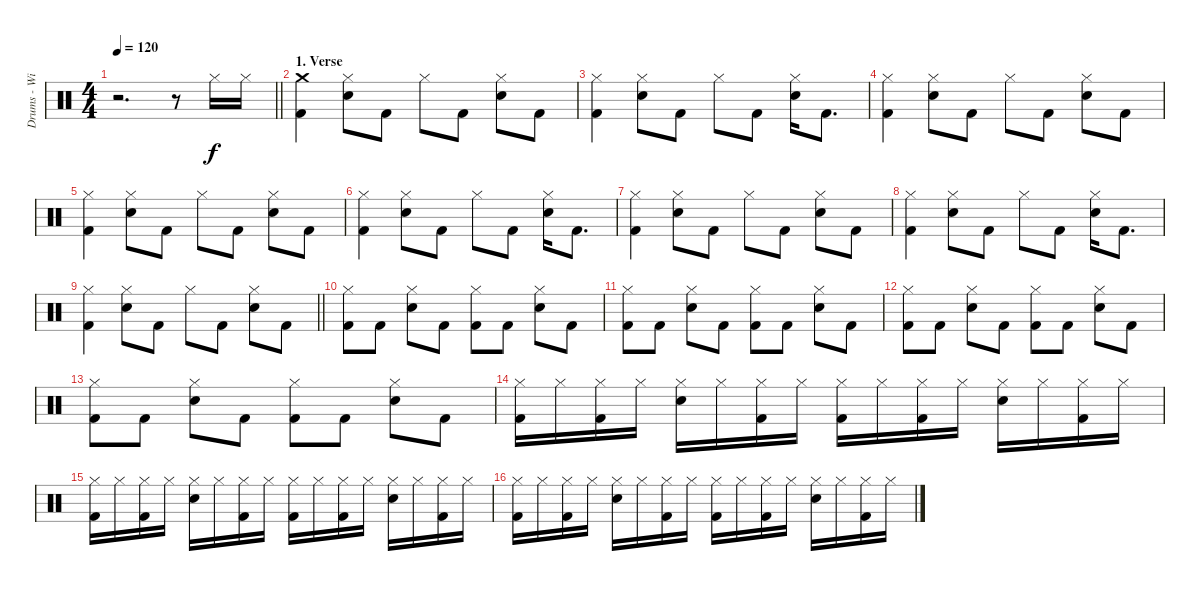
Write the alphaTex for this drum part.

\track ("Drums - Willi Wurm" "Drums - Wi") {instrument percussion}
\staff {score}
\articulation defaults
\ts (4 4)
\tempo 120
\clef neutral
\barLineRight lightlight
\ks c
r.2{d dy f} r.8 "Hi-Hat (closed)".16 "Hi-Hat (closed)".16 |
\section ("" "1. Verse")
("Crash medium (hit)" "Kick (hit) 2").4 ("Hi-Hat (closed)" "Snare (hit) 2").8 "Kick (hit) 2".8 "Hi-Hat (closed)".8 "Kick (hit) 2".8 ("Hi-Hat (closed)" "Snare (hit) 2").8 "Kick (hit) 2".8 |
("Hi-Hat (closed)" "Kick (hit) 2").4 ("Hi-Hat (closed)" "Snare (hit) 2").8 "Kick (hit) 2".8 "Hi-Hat (closed)".8 "Kick (hit) 2".8 ("Hi-Hat (closed)" "Snare (hit) 2").16 "Kick (hit) 2".8{d} |
("Hi-Hat (closed)" "Kick (hit) 2").4 ("Hi-Hat (closed)" "Snare (hit) 2").8 "Kick (hit) 2".8 "Hi-Hat (closed)".8 "Kick (hit) 2".8 ("Hi-Hat (closed)" "Snare (hit) 2").8 "Kick (hit) 2".8 |
("Hi-Hat (closed)" "Kick (hit) 2").4 ("Hi-Hat (closed)" "Snare (hit) 2").8 "Kick (hit) 2".8 "Hi-Hat (closed)".8 "Kick (hit) 2".8 ("Hi-Hat (closed)" "Snare (hit) 2").8 "Kick (hit) 2".8 |
("Hi-Hat (closed)" "Kick (hit) 2").4 ("Hi-Hat (closed)" "Snare (hit) 2").8 "Kick (hit) 2".8 "Hi-Hat (closed)".8 "Kick (hit) 2".8 ("Hi-Hat (closed)" "Snare (hit) 2").16 "Kick (hit) 2".8{d} |
("Hi-Hat (closed)" "Kick (hit) 2").4 ("Hi-Hat (closed)" "Snare (hit) 2").8 "Kick (hit) 2".8 "Hi-Hat (closed)".8 "Kick (hit) 2".8 ("Hi-Hat (closed)" "Snare (hit) 2").8 "Kick (hit) 2".8 |
("Hi-Hat (closed)" "Kick (hit) 2").4 ("Hi-Hat (closed)" "Snare (hit) 2").8 "Kick (hit) 2".8 "Hi-Hat (closed)".8 "Kick (hit) 2".8 ("Hi-Hat (closed)" "Snare (hit) 2").16 "Kick (hit) 2".8{d} |
\barLineRight lightlight
("Hi-Hat (closed)" "Kick (hit) 2").4 ("Hi-Hat (closed)" "Snare (hit) 2").8 "Kick (hit) 2".8 "Hi-Hat (closed)".8 "Kick (hit) 2".8 ("Hi-Hat (closed)" "Snare (hit) 2").8 "Kick (hit) 2".8 |
\section ("" "")
("Hi-Hat (closed)" "Kick (hit) 2").8 "Kick (hit) 2".8 ("Hi-Hat (closed)" "Snare (hit) 2").8 "Kick (hit) 2".8 ("Hi-Hat (closed)" "Kick (hit) 2").8 "Kick (hit) 2".8 ("Hi-Hat (closed)" "Snare (hit) 2").8 "Kick (hit) 2".8 |
("Hi-Hat (closed)" "Kick (hit) 2").8 "Kick (hit) 2".8 ("Hi-Hat (closed)" "Snare (hit) 2").8 "Kick (hit) 2".8 ("Hi-Hat (closed)" "Kick (hit) 2").8 "Kick (hit) 2".8 ("Hi-Hat (closed)" "Snare (hit) 2").8 "Kick (hit) 2".8 |
("Hi-Hat (closed)" "Kick (hit) 2").8 "Kick (hit) 2".8 ("Hi-Hat (closed)" "Snare (hit) 2").8 "Kick (hit) 2".8 ("Hi-Hat (closed)" "Kick (hit) 2").8 "Kick (hit) 2".8 ("Hi-Hat (closed)" "Snare (hit) 2").8 "Kick (hit) 2".8 |
("Hi-Hat (closed)" "Kick (hit) 2").8 "Kick (hit) 2".8 ("Hi-Hat (closed)" "Snare (hit) 2").8 "Kick (hit) 2".8 ("Hi-Hat (closed)" "Kick (hit) 2").8 "Kick (hit) 2".8 ("Hi-Hat (closed)" "Snare (hit) 2").8 "Kick (hit) 2".8 |
("Hi-Hat (closed)" "Kick (hit) 2").16 "Hi-Hat (closed)".16 ("Hi-Hat (closed)" "Kick (hit) 2").16 "Hi-Hat (closed)".16 ("Hi-Hat (closed)" "Snare (hit) 2").16 "Hi-Hat (closed)".16 ("Hi-Hat (closed)" "Kick (hit) 2").16 "Hi-Hat (closed)".16 ("Hi-Hat (closed)" "Kick (hit) 2").16 "Hi-Hat (closed)".16 ("Hi-Hat (closed)" "Kick (hit) 2").16 "Hi-Hat (closed)".16 ("Hi-Hat (closed)" "Snare (hit) 2").16 "Hi-Hat (closed)".16 ("Hi-Hat (closed)" "Kick (hit) 2").16 "Hi-Hat (closed)".16 |
("Hi-Hat (closed)" "Kick (hit) 2").16 "Hi-Hat (closed)".16 ("Hi-Hat (closed)" "Kick (hit) 2").16 "Hi-Hat (closed)".16 ("Hi-Hat (closed)" "Snare (hit) 2").16 "Hi-Hat (closed)".16 ("Hi-Hat (closed)" "Kick (hit) 2").16 "Hi-Hat (closed)".16 ("Hi-Hat (closed)" "Kick (hit) 2").16 "Hi-Hat (closed)".16 ("Hi-Hat (closed)" "Kick (hit) 2").16 "Hi-Hat (closed)".16 ("Hi-Hat (closed)" "Snare (hit) 2").16 "Hi-Hat (closed)".16 ("Hi-Hat (closed)" "Kick (hit) 2").16 "Hi-Hat (closed)".16 |
("Hi-Hat (closed)" "Kick (hit) 2").16 "Hi-Hat (closed)".16 ("Hi-Hat (closed)" "Kick (hit) 2").16 "Hi-Hat (closed)".16 ("Hi-Hat (closed)" "Snare (hit) 2").16 "Hi-Hat (closed)".16 ("Hi-Hat (closed)" "Kick (hit) 2").16 "Hi-Hat (closed)".16 ("Hi-Hat (closed)" "Kick (hit) 2").16 "Hi-Hat (closed)".16 ("Hi-Hat (closed)" "Kick (hit) 2").16 "Hi-Hat (closed)".16 ("Hi-Hat (closed)" "Snare (hit) 2").16 "Hi-Hat (closed)".16 ("Hi-Hat (closed)" "Kick (hit) 2").16 "Hi-Hat (closed)".16
